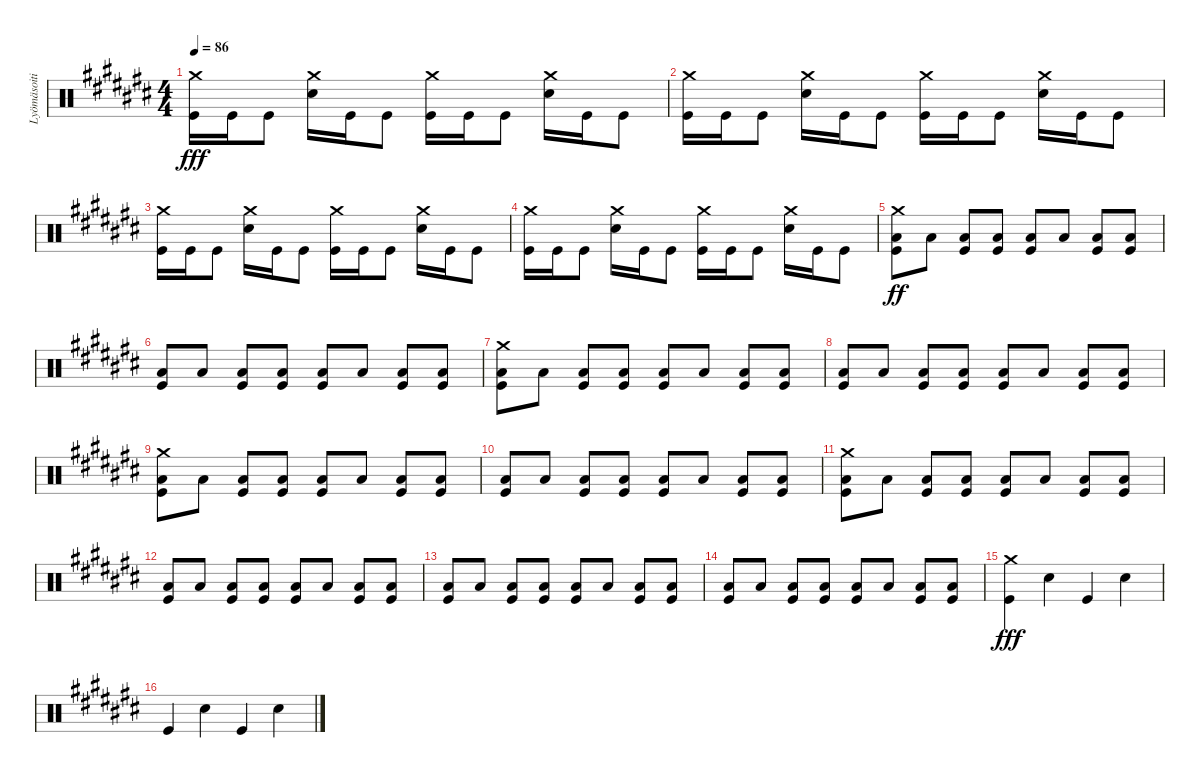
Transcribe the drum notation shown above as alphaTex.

\track ("Lyömäsoitin" "Lyömäsoiti") {instrument percussion}
\staff {score}
\articulation defaults
\ts (4 4)
\tempo 86
\clef neutral
\ks c#
("Crash medium (hit)" "Kick (hit)").16{dy fff} "Kick (hit)".16 "Kick (hit)".8 ("Crash medium (hit)" "Snare (hit) 2").16 "Kick (hit)".16 "Kick (hit)".8 ("Crash medium (hit)" "Kick (hit)").16 "Kick (hit)".16 "Kick (hit)".8 ("Crash medium (hit)" "Snare (hit) 2").16 "Kick (hit)".16 "Kick (hit)".8 |
("Crash medium (hit)" "Kick (hit)").16 "Kick (hit)".16 "Kick (hit)".8 ("Crash medium (hit)" "Snare (hit) 2").16 "Kick (hit)".16 "Kick (hit)".8 ("Crash medium (hit)" "Kick (hit)").16 "Kick (hit)".16 "Kick (hit)".8 ("Crash medium (hit)" "Snare (hit) 2").16 "Kick (hit)".16 "Kick (hit)".8 |
("Crash medium (hit)" "Kick (hit)").16 "Kick (hit)".16 "Kick (hit)".8 ("Crash medium (hit)" "Snare (hit) 2").16 "Kick (hit)".16 "Kick (hit)".8 ("Crash medium (hit)" "Kick (hit)").16 "Kick (hit)".16 "Kick (hit)".8 ("Crash medium (hit)" "Snare (hit) 2").16 "Kick (hit)".16 "Kick (hit)".8 |
("Crash medium (hit)" "Kick (hit)").16 "Kick (hit)".16 "Kick (hit)".8 ("Crash medium (hit)" "Snare (hit) 2").16 "Kick (hit)".16 "Kick (hit)".8 ("Crash medium (hit)" "Kick (hit)").16 "Kick (hit)".16 "Kick (hit)".8 ("Crash medium (hit)" "Snare (hit) 2").16 "Kick (hit)".16 "Kick (hit)".8 |
("Crash medium (hit)" "Low Floor Tom (hit)" "Kick (hit)").8{dy ff} "Low Floor Tom (hit)".8 ("Low Floor Tom (hit)" "Kick (hit)").8 ("Low Floor Tom (hit)" "Kick (hit)").8 ("Low Floor Tom (hit)" "Kick (hit)").8 "Low Floor Tom (hit)".8 ("Low Floor Tom (hit)" "Kick (hit)").8 ("Low Floor Tom (hit)" "Kick (hit)").8 |
("Low Floor Tom (hit)" "Kick (hit)").8 "Low Floor Tom (hit)".8 ("Low Floor Tom (hit)" "Kick (hit)").8 ("Low Floor Tom (hit)" "Kick (hit)").8 ("Low Floor Tom (hit)" "Kick (hit)").8 "Low Floor Tom (hit)".8 ("Low Floor Tom (hit)" "Kick (hit)").8 ("Low Floor Tom (hit)" "Kick (hit)").8 |
("Crash medium (hit)" "Low Floor Tom (hit)" "Kick (hit)").8 "Low Floor Tom (hit)".8 ("Low Floor Tom (hit)" "Kick (hit)").8 ("Low Floor Tom (hit)" "Kick (hit)").8 ("Low Floor Tom (hit)" "Kick (hit)").8 "Low Floor Tom (hit)".8 ("Low Floor Tom (hit)" "Kick (hit)").8 ("Low Floor Tom (hit)" "Kick (hit)").8 |
("Low Floor Tom (hit)" "Kick (hit)").8 "Low Floor Tom (hit)".8 ("Low Floor Tom (hit)" "Kick (hit)").8 ("Low Floor Tom (hit)" "Kick (hit)").8 ("Low Floor Tom (hit)" "Kick (hit)").8 "Low Floor Tom (hit)".8 ("Low Floor Tom (hit)" "Kick (hit)").8 ("Low Floor Tom (hit)" "Kick (hit)").8 |
("Crash medium (hit)" "Low Floor Tom (hit)" "Kick (hit)").8 "Low Floor Tom (hit)".8 ("Low Floor Tom (hit)" "Kick (hit)").8 ("Low Floor Tom (hit)" "Kick (hit)").8 ("Low Floor Tom (hit)" "Kick (hit)").8 "Low Floor Tom (hit)".8 ("Low Floor Tom (hit)" "Kick (hit)").8 ("Low Floor Tom (hit)" "Kick (hit)").8 |
("Low Floor Tom (hit)" "Kick (hit)").8 "Low Floor Tom (hit)".8 ("Low Floor Tom (hit)" "Kick (hit)").8 ("Low Floor Tom (hit)" "Kick (hit)").8 ("Low Floor Tom (hit)" "Kick (hit)").8 "Low Floor Tom (hit)".8 ("Low Floor Tom (hit)" "Kick (hit)").8 ("Low Floor Tom (hit)" "Kick (hit)").8 |
("Crash medium (hit)" "Low Floor Tom (hit)" "Kick (hit)").8 "Low Floor Tom (hit)".8 ("Low Floor Tom (hit)" "Kick (hit)").8 ("Low Floor Tom (hit)" "Kick (hit)").8 ("Low Floor Tom (hit)" "Kick (hit)").8 "Low Floor Tom (hit)".8 ("Low Floor Tom (hit)" "Kick (hit)").8 ("Low Floor Tom (hit)" "Kick (hit)").8 |
("Low Floor Tom (hit)" "Kick (hit)").8 "Low Floor Tom (hit)".8 ("Low Floor Tom (hit)" "Kick (hit)").8 ("Low Floor Tom (hit)" "Kick (hit)").8 ("Low Floor Tom (hit)" "Kick (hit)").8 "Low Floor Tom (hit)".8 ("Low Floor Tom (hit)" "Kick (hit)").8 ("Low Floor Tom (hit)" "Kick (hit)").8 |
("Low Floor Tom (hit)" "Kick (hit)").8 "Low Floor Tom (hit)".8 ("Low Floor Tom (hit)" "Kick (hit)").8 ("Low Floor Tom (hit)" "Kick (hit)").8 ("Low Floor Tom (hit)" "Kick (hit)").8 "Low Floor Tom (hit)".8 ("Low Floor Tom (hit)" "Kick (hit)").8 ("Low Floor Tom (hit)" "Kick (hit)").8 |
("Low Floor Tom (hit)" "Kick (hit)").8 "Low Floor Tom (hit)".8 ("Low Floor Tom (hit)" "Kick (hit)").8 ("Low Floor Tom (hit)" "Kick (hit)").8 ("Low Floor Tom (hit)" "Kick (hit)").8 "Low Floor Tom (hit)".8 ("Low Floor Tom (hit)" "Kick (hit)").8 ("Low Floor Tom (hit)" "Kick (hit)").8 |
("Crash medium (hit)" "Kick (hit)").4{dy fff} "Snare (hit) 2".4 "Kick (hit)".4 "Snare (hit) 2".4 |
"Kick (hit)".4 "Snare (hit) 2".4 "Kick (hit)".4 "Snare (hit) 2".4
